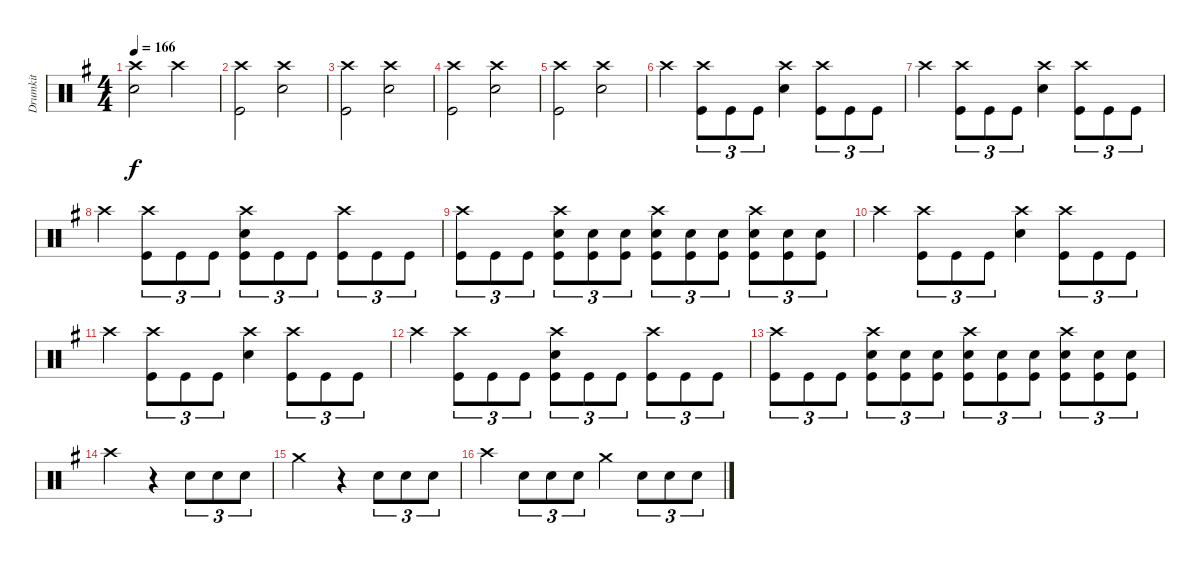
\track ("Drumkit" "Drumkit") {instrument percussion}
\staff {score}
\articulation defaults
\ts (4 4)
\tempo 166
\clef neutral
\ks g
("Crash high (hit)" "Snare (hit) 2").2{dy f} "Crash high (hit)".2 |
("Crash high (hit)" "Kick (hit)").2 ("Crash high (hit)" "Snare (hit) 2").2 |
("Crash high (hit)" "Kick (hit)").2 ("Crash high (hit)" "Snare (hit) 2").2 |
("Crash high (hit)" "Kick (hit)").2 ("Crash high (hit)" "Snare (hit) 2").2 |
("Crash high (hit)" "Kick (hit)").2 ("Crash high (hit)" "Snare (hit) 2").2 |
"Crash high (hit)".4 ("Crash high (hit)" "Kick (hit)").8{tu (3 2)} "Kick (hit)".8{tu (3 2)} "Kick (hit)".8{tu (3 2)} ("Crash high (hit)" "Snare (hit) 2").4 ("Crash high (hit)" "Kick (hit)").8{tu (3 2)} "Kick (hit)".8{tu (3 2)} "Kick (hit)".8{tu (3 2)} |
"Crash high (hit)".4 ("Crash high (hit)" "Kick (hit)").8{tu (3 2)} "Kick (hit)".8{tu (3 2)} "Kick (hit)".8{tu (3 2)} ("Crash high (hit)" "Snare (hit) 2").4 ("Crash high (hit)" "Kick (hit)").8{tu (3 2)} "Kick (hit)".8{tu (3 2)} "Kick (hit)".8{tu (3 2)} |
"Crash high (hit)".4 ("Crash high (hit)" "Kick (hit)").8{tu (3 2)} "Kick (hit)".8{tu (3 2)} "Kick (hit)".8{tu (3 2)} ("Crash high (hit)" "Snare (hit) 2" "Kick (hit)").8{tu (3 2)} "Kick (hit)".8{tu (3 2)} "Kick (hit)".8{tu (3 2)} ("Crash high (hit)" "Kick (hit)").8{tu (3 2)} "Kick (hit)".8{tu (3 2)} "Kick (hit)".8{tu (3 2)} |
("Crash high (hit)" "Kick (hit)").8{tu (3 2)} "Kick (hit)".8{tu (3 2)} "Kick (hit)".8{tu (3 2)} ("Crash high (hit)" "Snare (hit) 2" "Kick (hit)").8{tu (3 2)} ("Snare (hit) 2" "Kick (hit)").8{tu (3 2)} ("Snare (hit) 2" "Kick (hit)").8{tu (3 2)} ("Crash high (hit)" "Snare (hit) 2" "Kick (hit)").8{tu (3 2)} ("Snare (hit) 2" "Kick (hit)").8{tu (3 2)} ("Snare (hit) 2" "Kick (hit)").8{tu (3 2)} ("Crash high (hit)" "Snare (hit) 2" "Kick (hit)").8{tu (3 2)} ("Snare (hit) 2" "Kick (hit)").8{tu (3 2)} ("Snare (hit) 2" "Kick (hit)").8{tu (3 2)} |
"Crash high (hit)".4 ("Crash high (hit)" "Kick (hit)").8{tu (3 2)} "Kick (hit)".8{tu (3 2)} "Kick (hit)".8{tu (3 2)} ("Crash high (hit)" "Snare (hit) 2").4 ("Crash high (hit)" "Kick (hit)").8{tu (3 2)} "Kick (hit)".8{tu (3 2)} "Kick (hit)".8{tu (3 2)} |
"Crash high (hit)".4 ("Crash high (hit)" "Kick (hit)").8{tu (3 2)} "Kick (hit)".8{tu (3 2)} "Kick (hit)".8{tu (3 2)} ("Crash high (hit)" "Snare (hit) 2").4 ("Crash high (hit)" "Kick (hit)").8{tu (3 2)} "Kick (hit)".8{tu (3 2)} "Kick (hit)".8{tu (3 2)} |
"Crash high (hit)".4 ("Crash high (hit)" "Kick (hit)").8{tu (3 2)} "Kick (hit)".8{tu (3 2)} "Kick (hit)".8{tu (3 2)} ("Crash high (hit)" "Snare (hit) 2" "Kick (hit)").8{tu (3 2)} "Kick (hit)".8{tu (3 2)} "Kick (hit)".8{tu (3 2)} ("Crash high (hit)" "Kick (hit)").8{tu (3 2)} "Kick (hit)".8{tu (3 2)} "Kick (hit)".8{tu (3 2)} |
("Crash high (hit)" "Kick (hit)").8{tu (3 2)} "Kick (hit)".8{tu (3 2)} "Kick (hit)".8{tu (3 2)} ("Crash high (hit)" "Snare (hit) 2" "Kick (hit)").8{tu (3 2)} ("Snare (hit) 2" "Kick (hit)").8{tu (3 2)} ("Snare (hit) 2" "Kick (hit)").8{tu (3 2)} ("Crash high (hit)" "Snare (hit) 2" "Kick (hit)").8{tu (3 2)} ("Snare (hit) 2" "Kick (hit)").8{tu (3 2)} ("Snare (hit) 2" "Kick (hit)").8{tu (3 2)} ("Crash high (hit)" "Snare (hit) 2" "Kick (hit)").8{tu (3 2)} ("Snare (hit) 2" "Kick (hit)").8{tu (3 2)} ("Snare (hit) 2" "Kick (hit)").8{tu (3 2)} |
"Crash high (hit)".2 r.4 "Snare (hit) 2".8{tu (3 2)} "Snare (hit) 2".8{tu (3 2)} "Snare (hit) 2".8{tu (3 2)} |
"Crash medium (hit)".2 r.4 "Snare (hit) 2".8{tu (3 2)} "Snare (hit) 2".8{tu (3 2)} "Snare (hit) 2".8{tu (3 2)} |
"Crash high (hit)".4 "Snare (hit) 2".8{tu (3 2)} "Snare (hit) 2".8{tu (3 2)} "Snare (hit) 2".8{tu (3 2)} "Crash medium (hit)".4 "Snare (hit) 2".8{tu (3 2)} "Snare (hit) 2".8{tu (3 2)} "Snare (hit) 2".8{tu (3 2)}
